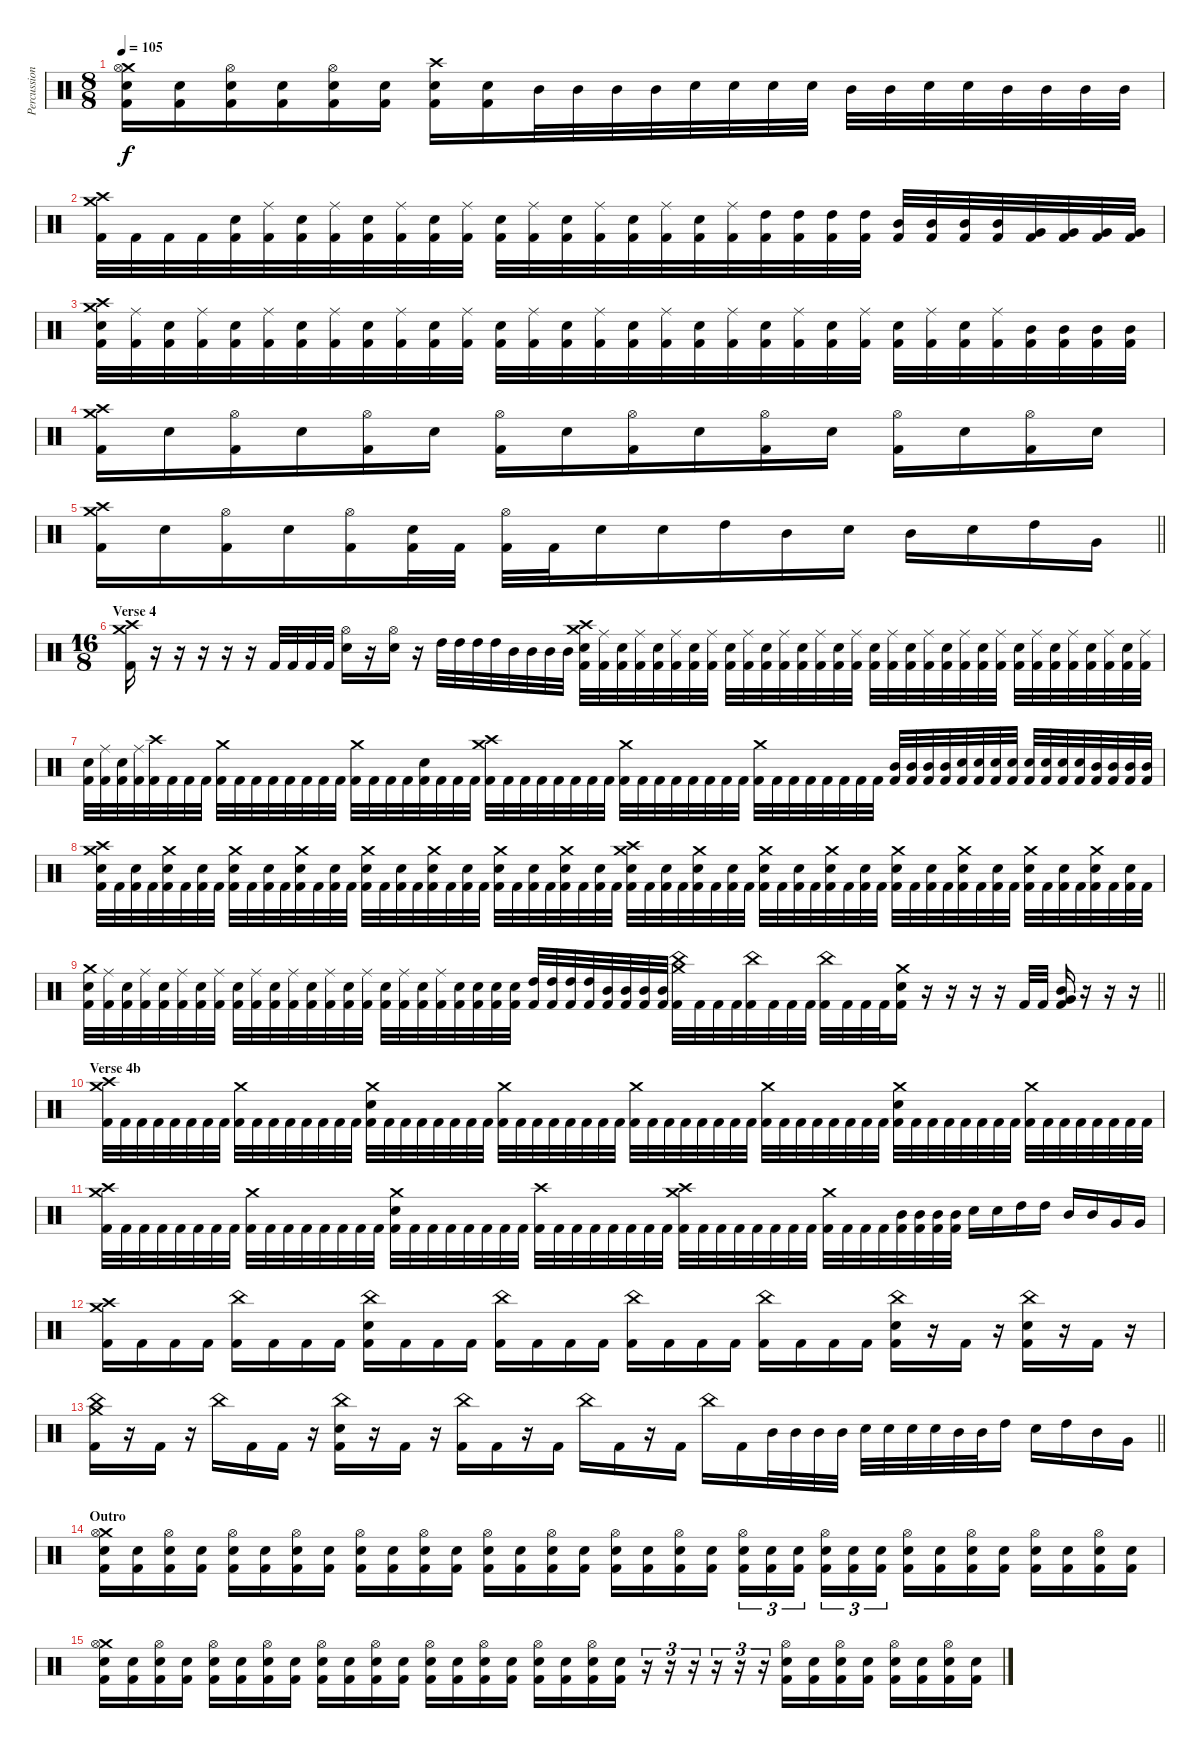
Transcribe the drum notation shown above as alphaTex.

\track ("Percussion" "Percussion") {instrument percussion}
\staff {score}
\articulation defaults
\ts (8 8)
\tempo 105
\clef neutral
\ks c
("Crash medium (hit)" "Hi-Hat (open)" "Snare (hit) 2" "Kick (hit) 2").16{dy f} ("Snare (hit) 2" "Kick (hit) 2").16 ("Hi-Hat (open)" "Snare (hit) 2" "Kick (hit) 2").16 ("Snare (hit) 2" "Kick (hit) 2").16 ("Hi-Hat (open)" "Snare (hit) 2" "Kick (hit) 2").16 ("Snare (hit) 2" "Kick (hit) 2").16 ("Crash high (hit)" "Snare (hit) 2" "Kick (hit) 2").16 ("Snare (hit) 2" "Kick (hit) 2").16 "Mid Tom (hit)".32 "Mid Tom (hit)".32 "Mid Tom (hit)".32 "Mid Tom (hit)".32 "Snare (hit) 2".32 "Snare (hit) 2".32 "Snare (hit) 2".32 "Snare (hit) 2".32 "Mid Tom (hit)".32 "Mid Tom (hit)".32 "Snare (hit) 2".32 "Snare (hit) 2".32 "Mid Tom (hit)".32 "Mid Tom (hit)".32 "Mid Tom (hit)".32 "Mid Tom (hit)".32 |
("Crash medium (hit)" "Crash high (hit)" "Kick (hit) 2").32 "Kick (hit) 2".32 "Kick (hit) 2".32 "Kick (hit) 2".32 ("Snare (hit) 2" "Kick (hit) 2").32 ("Ride (middle)" "Kick (hit) 2").32 ("Snare (hit) 2" "Kick (hit) 2").32 ("Ride (middle)" "Kick (hit) 2").32 ("Snare (hit) 2" "Kick (hit) 2").32 ("Ride (middle)" "Kick (hit) 2").32 ("Snare (hit) 2" "Kick (hit) 2").32 ("Ride (middle)" "Kick (hit) 2").32 ("Snare (hit) 2" "Kick (hit) 2").32 ("Ride (middle)" "Kick (hit) 2").32 ("Snare (hit) 2" "Kick (hit) 2").32 ("Ride (middle)" "Kick (hit) 2").32 ("Snare (hit) 2" "Kick (hit) 2").32 ("Ride (middle)" "Kick (hit) 2").32 ("Snare (hit) 2" "Kick (hit) 2").32 ("Ride (middle)" "Kick (hit) 2").32 ("High Tom (hit)" "Kick (hit) 2").32 ("High Tom (hit)" "Kick (hit) 2").32 ("High Tom (hit)" "Kick (hit) 2").32 ("High Tom (hit)" "Kick (hit) 2").32 ("Mid Tom (hit)" "Kick (hit) 2").32 ("Mid Tom (hit)" "Kick (hit) 2").32 ("Mid Tom (hit)" "Kick (hit) 2").32 ("Mid Tom (hit)" "Kick (hit) 2").32 ("Very Low Tom (hit)" "Kick (hit) 2").32 ("Very Low Tom (hit)" "Kick (hit) 2").32 ("Very Low Tom (hit)" "Kick (hit) 2").32 ("Very Low Tom (hit)" "Kick (hit) 2").32 |
("Crash medium (hit)" "Crash high (hit)" "Snare (hit) 2" "Kick (hit) 2").32 ("Ride (middle)" "Kick (hit) 2").32 ("Snare (hit) 2" "Kick (hit) 2").32 ("Ride (middle)" "Kick (hit) 2").32 ("Snare (hit) 2" "Kick (hit) 2").32 ("Ride (middle)" "Kick (hit) 2").32 ("Snare (hit) 2" "Kick (hit) 2").32 ("Ride (middle)" "Kick (hit) 2").32 ("Snare (hit) 2" "Kick (hit) 2").32 ("Ride (middle)" "Kick (hit) 2").32 ("Snare (hit) 2" "Kick (hit) 2").32 ("Ride (middle)" "Kick (hit) 2").32 ("Snare (hit) 2" "Kick (hit) 2").32 ("Ride (middle)" "Kick (hit) 2").32 ("Snare (hit) 2" "Kick (hit) 2").32 ("Ride (middle)" "Kick (hit) 2").32 ("Snare (hit) 2" "Kick (hit) 2").32 ("Ride (middle)" "Kick (hit) 2").32 ("Snare (hit) 2" "Kick (hit) 2").32 ("Ride (middle)" "Kick (hit) 2").32 ("Snare (hit) 2" "Kick (hit) 2").32 ("Ride (middle)" "Kick (hit) 2").32 ("Snare (hit) 2" "Kick (hit) 2").32 ("Ride (middle)" "Kick (hit) 2").32 ("Snare (hit) 2" "Kick (hit) 2").32 ("Ride (middle)" "Kick (hit) 2").32 ("Snare (hit) 2" "Kick (hit) 2").32 ("Ride (middle)" "Kick (hit) 2").32 ("Mid Tom (hit)" "Kick (hit) 2").32 ("Mid Tom (hit)" "Kick (hit) 2").32 ("Mid Tom (hit)" "Kick (hit) 2").32 ("Mid Tom (hit)" "Kick (hit) 2").32 |
("Crash medium (hit)" "Crash high (hit)" "Kick (hit) 2").16 "Snare (hit) 2".16 ("Hi-Hat (open)" "Kick (hit) 2").16 "Snare (hit) 2".16 ("Hi-Hat (open)" "Kick (hit) 2").16 "Snare (hit) 2".16 ("Hi-Hat (open)" "Kick (hit) 2").16 "Snare (hit) 2".16 ("Hi-Hat (open)" "Kick (hit) 2").16 "Snare (hit) 2".16 ("Hi-Hat (open)" "Kick (hit) 2").16 "Snare (hit) 2".16 ("Hi-Hat (open)" "Kick (hit) 2").16 "Snare (hit) 2".16 ("Hi-Hat (open)" "Kick (hit) 2").16 "Snare (hit) 2".16 |
\barLineRight lightlight
("Crash medium (hit)" "Crash high (hit)" "Kick (hit) 2").16 "Snare (hit) 2".16 ("Hi-Hat (open)" "Kick (hit) 2").16 "Snare (hit) 2".16 ("Hi-Hat (open)" "Kick (hit) 2").16 ("Snare (hit) 2" "Kick (hit) 2").32 "Kick (hit) 2".32 ("Hi-Hat (open)" "Kick (hit) 2").32 "Kick (hit) 2".32 "Snare (hit) 2".16 "Snare (hit) 2".16 "High Tom (hit)".16 "Mid Tom (hit)".16 "Snare (hit) 2".16 "Mid Tom (hit)".16 "Snare (hit) 2".16 "High Tom (hit)".16 "Very Low Tom (hit)".16 |
\ts (16 8)
\section ("" "Verse 4")
("Crash high (hit)" "Crash medium (hit)" "Kick (hit) 2").16 r.16 r.16 r.16 r.16 r.16 "Kick (hit) 2".32 "Kick (hit) 2".32 "Kick (hit) 2".32 "Kick (hit) 2".32 ("Hi-Hat (open)" "Snare (hit) 2").16 r.16 ("Hi-Hat (open)" "Snare (hit) 2").16 r.16 "High Tom (hit)".32 "High Tom (hit)".32 "High Tom (hit)".32 "High Tom (hit)".32 "Mid Tom (hit)".32 "Mid Tom (hit)".32 "Mid Tom (hit)".32 "Mid Tom (hit)".32 ("Crash medium (hit)" "Crash high (hit)" "Snare (hit) 2" "Kick (hit) 2").32 ("Ride (middle)" "Kick (hit) 2").32 ("Snare (hit) 2" "Kick (hit) 2").32 ("Ride (middle)" "Kick (hit) 2").32 ("Snare (hit) 2" "Kick (hit) 2").32 ("Ride (middle)" "Kick (hit) 2").32 ("Snare (hit) 2" "Kick (hit) 2").32 ("Ride (middle)" "Kick (hit) 2").32 ("Snare (hit) 2" "Kick (hit) 2").32 ("Ride (middle)" "Kick (hit) 2").32 ("Snare (hit) 2" "Kick (hit) 2").32 ("Ride (middle)" "Kick (hit) 2").32 ("Snare (hit) 2" "Kick (hit) 2").32 ("Ride (middle)" "Kick (hit) 2").32 ("Snare (hit) 2" "Kick (hit) 2").32 ("Ride (middle)" "Kick (hit) 2").32 ("Snare (hit) 2" "Kick (hit) 2").32 ("Ride (middle)" "Kick (hit) 2").32 ("Snare (hit) 2" "Kick (hit) 2").32 ("Ride (middle)" "Kick (hit) 2").32 ("Snare (hit) 2" "Kick (hit) 2").32 ("Ride (middle)" "Kick (hit) 2").32 ("Snare (hit) 2" "Kick (hit) 2").32 ("Ride (middle)" "Kick (hit) 2").32 ("Snare (hit) 2" "Kick (hit) 2").32 ("Ride (middle)" "Kick (hit) 2").32 ("Snare (hit) 2" "Kick (hit) 2").32 ("Ride (middle)" "Kick (hit) 2").32 ("Snare (hit) 2" "Kick (hit) 2").32 ("Ride (middle)" "Kick (hit) 2").32 ("Snare (hit) 2" "Kick (hit) 2").32 ("Ride (middle)" "Kick (hit) 2").32 |
("Snare (hit) 2" "Kick (hit) 2").32 ("Ride (middle)" "Kick (hit) 2").32 ("Snare (hit) 2" "Kick (hit) 2").32 ("Ride (middle)" "Kick (hit) 2").32 ("Crash high (hit)" "Kick (hit) 2").32 "Kick (hit) 2".32 "Kick (hit) 2".32 "Kick (hit) 2".32 ("Crash medium (hit)" "Kick (hit) 2").32 "Kick (hit) 2".32 "Kick (hit) 2".32 "Kick (hit) 2".32 "Kick (hit) 2".32 "Kick (hit) 2".32 "Kick (hit) 2".32 "Kick (hit) 2".32 ("Crash medium (hit)" "Kick (hit) 2").32 "Kick (hit) 2".32 "Kick (hit) 2".32 "Kick (hit) 2".32 ("Snare (hit) 2" "Kick (hit) 2").32 "Kick (hit) 2".32 "Kick (hit) 2".32 "Kick (hit) 2".32 ("Crash high (hit)" "Crash medium (hit)" "Kick (hit) 2").32 "Kick (hit) 2".32 "Kick (hit) 2".32 "Kick (hit) 2".32 "Kick (hit) 2".32 "Kick (hit) 2".32 "Kick (hit) 2".32 "Kick (hit) 2".32 ("Crash medium (hit)" "Kick (hit) 2").32 "Kick (hit) 2".32 "Kick (hit) 2".32 "Kick (hit) 2".32 "Kick (hit) 2".32 "Kick (hit) 2".32 "Kick (hit) 2".32 "Kick (hit) 2".32 ("Crash medium (hit)" "Kick (hit) 2").32 "Kick (hit) 2".32 "Kick (hit) 2".32 "Kick (hit) 2".32 "Kick (hit) 2".32 "Kick (hit) 2".32 "Kick (hit) 2".32 "Kick (hit) 2".32 ("Mid Tom (hit)" "Kick (hit) 2").32 ("Mid Tom (hit)" "Kick (hit) 2").32 ("Mid Tom (hit)" "Kick (hit) 2").32 ("Mid Tom (hit)" "Kick (hit) 2").32 ("Snare (hit) 2" "Kick (hit) 2").32 ("Snare (hit) 2" "Kick (hit) 2").32 ("Snare (hit) 2" "Kick (hit) 2").32 ("Snare (hit) 2" "Kick (hit) 2").32 ("Snare (hit) 2" "Kick (hit) 2").32 ("Snare (hit) 2" "Kick (hit) 2").32 ("Snare (hit) 2" "Kick (hit) 2").32 ("Snare (hit) 2" "Kick (hit) 2").32 ("Mid Tom (hit)" "Kick (hit) 2").32 ("Mid Tom (hit)" "Kick (hit) 2").32 ("Mid Tom (hit)" "Kick (hit) 2").32 ("Mid Tom (hit)" "Kick (hit) 2").32 |
("Crash medium (hit)" "Crash high (hit)" "Snare (hit) 2" "Kick (hit) 2").32 "Kick (hit) 2".32 ("Snare (hit) 2" "Kick (hit) 2").32 "Kick (hit) 2".32 ("Crash medium (hit)" "Snare (hit) 2" "Kick (hit) 2").32 "Kick (hit) 2".32 ("Snare (hit) 2" "Kick (hit) 2").32 "Kick (hit) 2".32 ("Crash medium (hit)" "Snare (hit) 2" "Kick (hit) 2").32 "Kick (hit) 2".32 ("Snare (hit) 2" "Kick (hit) 2").32 "Kick (hit) 2".32 ("Crash medium (hit)" "Snare (hit) 2" "Kick (hit) 2").32 "Kick (hit) 2".32 ("Snare (hit) 2" "Kick (hit) 2").32 "Kick (hit) 2".32 ("Crash medium (hit)" "Snare (hit) 2" "Kick (hit) 2").32 "Kick (hit) 2".32 ("Snare (hit) 2" "Kick (hit) 2").32 "Kick (hit) 2".32 ("Crash medium (hit)" "Snare (hit) 2" "Kick (hit) 2").32 "Kick (hit) 2".32 ("Snare (hit) 2" "Kick (hit) 2").32 "Kick (hit) 2".32 ("Crash medium (hit)" "Snare (hit) 2" "Kick (hit) 2").32 "Kick (hit) 2".32 ("Snare (hit) 2" "Kick (hit) 2").32 "Kick (hit) 2".32 ("Crash medium (hit)" "Snare (hit) 2" "Kick (hit) 2").32 "Kick (hit) 2".32 ("Snare (hit) 2" "Kick (hit) 2").32 "Kick (hit) 2".32 ("Crash medium (hit)" "Crash high (hit)" "Snare (hit) 2" "Kick (hit) 2").32 "Kick (hit) 2".32 ("Snare (hit) 2" "Kick (hit) 2").32 "Kick (hit) 2".32 ("Crash medium (hit)" "Snare (hit) 2" "Kick (hit) 2").32 "Kick (hit) 2".32 ("Snare (hit) 2" "Kick (hit) 2").32 "Kick (hit) 2".32 ("Crash medium (hit)" "Snare (hit) 2" "Kick (hit) 2").32 "Kick (hit) 2".32 ("Snare (hit) 2" "Kick (hit) 2").32 "Kick (hit) 2".32 ("Crash medium (hit)" "Snare (hit) 2" "Kick (hit) 2").32 "Kick (hit) 2".32 ("Snare (hit) 2" "Kick (hit) 2").32 "Kick (hit) 2".32 ("Crash medium (hit)" "Snare (hit) 2" "Kick (hit) 2").32 "Kick (hit) 2".32 ("Snare (hit) 2" "Kick (hit) 2").32 "Kick (hit) 2".32 ("Crash medium (hit)" "Snare (hit) 2" "Kick (hit) 2").32 "Kick (hit) 2".32 ("Snare (hit) 2" "Kick (hit) 2").32 "Kick (hit) 2".32 ("Crash medium (hit)" "Snare (hit) 2" "Kick (hit) 2").32 "Kick (hit) 2".32 ("Snare (hit) 2" "Kick (hit) 2").32 "Kick (hit) 2".32 ("Crash medium (hit)" "Snare (hit) 2" "Kick (hit) 2").32 "Kick (hit) 2".32 ("Snare (hit) 2" "Kick (hit) 2").32 "Kick (hit) 2".32 |
\barLineRight lightlight
("Crash medium (hit)" "Snare (hit) 2" "Kick (hit) 2").32 ("Ride (middle)" "Kick (hit) 2").32 ("Snare (hit) 2" "Kick (hit) 2").32 ("Ride (middle)" "Kick (hit) 2").32 ("Snare (hit) 2" "Kick (hit) 2").32 ("Ride (middle)" "Kick (hit) 2").32 ("Snare (hit) 2" "Kick (hit) 2").32 ("Ride (middle)" "Kick (hit) 2").32 ("Snare (hit) 2" "Kick (hit) 2").32 ("Ride (middle)" "Kick (hit) 2").32 ("Snare (hit) 2" "Kick (hit) 2").32 ("Ride (middle)" "Kick (hit) 2").32 ("Snare (hit) 2" "Kick (hit) 2").32 ("Ride (middle)" "Kick (hit) 2").32 ("Snare (hit) 2" "Kick (hit) 2").32 ("Ride (middle)" "Kick (hit) 2").32 ("Snare (hit) 2" "Kick (hit) 2").32 ("Ride (middle)" "Kick (hit) 2").32 ("Snare (hit) 2" "Kick (hit) 2").32 ("Ride (middle)" "Kick (hit) 2").32 ("Snare (hit) 2" "Kick (hit) 2").32 ("Snare (hit) 2" "Kick (hit) 2").32 ("Snare (hit) 2" "Kick (hit) 2").32 ("Snare (hit) 2" "Kick (hit) 2").32 ("High Tom (hit)" "Kick (hit) 2").32 ("High Tom (hit)" "Kick (hit) 2").32 ("High Tom (hit)" "Kick (hit) 2").32 ("High Tom (hit)" "Kick (hit) 2").32 ("Mid Tom (hit)" "Kick (hit) 2").32 ("Mid Tom (hit)" "Kick (hit) 2").32 ("Mid Tom (hit)" "Kick (hit) 2").32 ("Mid Tom (hit)" "Kick (hit) 2").32 ("Crash medium (hit)" "China (hit)" "Kick (hit) 2").32 "Kick (hit) 2".32 "Kick (hit) 2".32 "Kick (hit) 2".32 ("China (hit)" "Kick (hit) 2").32 "Kick (hit) 2".32 "Kick (hit) 2".32 "Kick (hit) 2".32 ("China (hit)" "Kick (hit) 2").32 "Kick (hit) 2".32 "Kick (hit) 2".32 "Kick (hit) 2".32 ("Crash medium (hit)" "Snare (hit) 2" "Kick (hit) 2").16 r.16 r.16 r.16 r.16 "Kick (hit) 2".32 "Kick (hit) 2".32 ("Mid Tom (hit)" "Very Low Tom (hit)" "Kick (hit) 2").16 r.16 r.16 r.16 |
\section ("" "Verse 4b")
("Crash medium (hit)" "Crash high (hit)" "Kick (hit) 2").32 "Kick (hit) 2".32 "Kick (hit) 2".32 "Kick (hit) 2".32 "Kick (hit) 2".32 "Kick (hit) 2".32 "Kick (hit) 2".32 "Kick (hit) 2".32 ("Crash medium (hit)" "Kick (hit) 2").32 "Kick (hit) 2".32 "Kick (hit) 2".32 "Kick (hit) 2".32 "Kick (hit) 2".32 "Kick (hit) 2".32 "Kick (hit) 2".32 "Kick (hit) 2".32 ("Crash medium (hit)" "Snare (hit) 2" "Kick (hit) 2").32 "Kick (hit) 2".32 "Kick (hit) 2".32 "Kick (hit) 2".32 "Kick (hit) 2".32 "Kick (hit) 2".32 "Kick (hit) 2".32 "Kick (hit) 2".32 ("Crash medium (hit)" "Kick (hit) 2").32 "Kick (hit) 2".32 "Kick (hit) 2".32 "Kick (hit) 2".32 "Kick (hit) 2".32 "Kick (hit) 2".32 "Kick (hit) 2".32 "Kick (hit) 2".32 ("Crash medium (hit)" "Kick (hit) 2").32 "Kick (hit) 2".32 "Kick (hit) 2".32 "Kick (hit) 2".32 "Kick (hit) 2".32 "Kick (hit) 2".32 "Kick (hit) 2".32 "Kick (hit) 2".32 ("Crash medium (hit)" "Kick (hit) 2").32 "Kick (hit) 2".32 "Kick (hit) 2".32 "Kick (hit) 2".32 "Kick (hit) 2".32 "Kick (hit) 2".32 "Kick (hit) 2".32 "Kick (hit) 2".32 ("Crash medium (hit)" "Snare (hit) 2" "Kick (hit) 2").32 "Kick (hit) 2".32 "Kick (hit) 2".32 "Kick (hit) 2".32 "Kick (hit) 2".32 "Kick (hit) 2".32 "Kick (hit) 2".32 "Kick (hit) 2".32 ("Crash medium (hit)" "Kick (hit) 2").32 "Kick (hit) 2".32 "Kick (hit) 2".32 "Kick (hit) 2".32 "Kick (hit) 2".32 "Kick (hit) 2".32 "Kick (hit) 2".32 "Kick (hit) 2".32 |
("Crash medium (hit)" "Crash high (hit)" "Kick (hit) 2").32 "Kick (hit) 2".32 "Kick (hit) 2".32 "Kick (hit) 2".32 "Kick (hit) 2".32 "Kick (hit) 2".32 "Kick (hit) 2".32 "Kick (hit) 2".32 ("Crash medium (hit)" "Kick (hit) 2").32 "Kick (hit) 2".32 "Kick (hit) 2".32 "Kick (hit) 2".32 "Kick (hit) 2".32 "Kick (hit) 2".32 "Kick (hit) 2".32 "Kick (hit) 2".32 ("Crash medium (hit)" "Snare (hit) 2" "Kick (hit) 2").32 "Kick (hit) 2".32 "Kick (hit) 2".32 "Kick (hit) 2".32 "Kick (hit) 2".32 "Kick (hit) 2".32 "Kick (hit) 2".32 "Kick (hit) 2".32 ("Crash high (hit)" "Kick (hit) 2").32 "Kick (hit) 2".32 "Kick (hit) 2".32 "Kick (hit) 2".32 "Kick (hit) 2".32 "Kick (hit) 2".32 "Kick (hit) 2".32 "Kick (hit) 2".32 ("Crash high (hit)" "Crash medium (hit)" "Kick (hit) 2").32 "Kick (hit) 2".32 "Kick (hit) 2".32 "Kick (hit) 2".32 "Kick (hit) 2".32 "Kick (hit) 2".32 "Kick (hit) 2".32 "Kick (hit) 2".32 ("Crash medium (hit)" "Kick (hit) 2").32 "Kick (hit) 2".32 "Kick (hit) 2".32 "Kick (hit) 2".32 ("Mid Tom (hit)" "Kick (hit) 2").32 ("Mid Tom (hit)" "Kick (hit) 2").32 ("Mid Tom (hit)" "Kick (hit) 2").32 ("Mid Tom (hit)" "Kick (hit) 2").32 "Snare (hit) 2".16 "Snare (hit) 2".16 "High Tom (hit)".16 "High Tom (hit)".16 "Mid Tom (hit)".16 "Mid Tom (hit)".16 "Very Low Tom (hit)".16 "Very Low Tom (hit)".16 |
("Crash medium (hit)" "Crash high (hit)" "Kick (hit) 2").16 "Kick (hit) 2".16 "Kick (hit) 2".16 "Kick (hit) 2".16 ("China (hit)" "Kick (hit) 2").16 "Kick (hit) 2".16 "Kick (hit) 2".16 "Kick (hit) 2".16 ("China (hit)" "Snare (hit) 2" "Kick (hit) 2").16 "Kick (hit) 2".16 "Kick (hit) 2".16 "Kick (hit) 2".16 ("China (hit)" "Kick (hit) 2").16 "Kick (hit) 2".16 "Kick (hit) 2".16 "Kick (hit) 2".16 ("China (hit)" "Kick (hit) 2").16 "Kick (hit) 2".16 "Kick (hit) 2".16 "Kick (hit) 2".16 ("China (hit)" "Kick (hit) 2").16 "Kick (hit) 2".16 "Kick (hit) 2".16 "Kick (hit) 2".16 ("China (hit)" "Snare (hit) 2" "Kick (hit) 2").16 r.16 "Kick (hit) 2".16 r.16 ("China (hit)" "Snare (hit) 2" "Kick (hit) 2").16 r.16 "Kick (hit) 2".16 r.16 |
\barLineRight lightlight
("Crash medium (hit)" "China (hit)" "Kick (hit) 2").16 r.16 "Kick (hit) 2".16 r.16 "China (hit)".16 "Kick (hit) 2".16 "Kick (hit) 2".16 r.16 ("China (hit)" "Snare (hit) 2" "Kick (hit) 2").16 r.16 "Kick (hit) 2".16 r.16 ("China (hit)" "Kick (hit) 2").16 "Kick (hit) 2".16 r.16 "Kick (hit) 2".16 "China (hit)".16 "Kick (hit) 2".16 r.16 "Kick (hit) 2".16 "China (hit)".16 "Kick (hit) 2".16 "Mid Tom (hit)".32 "Mid Tom (hit)".32 "Mid Tom (hit)".32 "Mid Tom (hit)".32 "Snare (hit) 2".32 "Snare (hit) 2".32 "Snare (hit) 2".32 "Snare (hit) 2".32 "Mid Tom (hit)".32 "Mid Tom (hit)".32 "High Tom (hit)".16 "Snare (hit) 2".16 "High Tom (hit)".16 "Mid Tom (hit)".16 "Very Low Tom (hit)".16 |
\section ("" "Outro")
("Crash medium (hit)" "Hi-Hat (open)" "Snare (hit) 2" "Kick (hit) 2").16 ("Snare (hit) 2" "Kick (hit) 2").16 ("Hi-Hat (open)" "Snare (hit) 2" "Kick (hit) 2").16 ("Snare (hit) 2" "Kick (hit) 2").16 ("Hi-Hat (open)" "Snare (hit) 2" "Kick (hit) 2").16 ("Snare (hit) 2" "Kick (hit) 2").16 ("Hi-Hat (open)" "Snare (hit) 2" "Kick (hit) 2").16 ("Snare (hit) 2" "Kick (hit) 2").16 ("Hi-Hat (open)" "Snare (hit) 2" "Kick (hit) 2").16 ("Snare (hit) 2" "Kick (hit) 2").16 ("Hi-Hat (open)" "Snare (hit) 2" "Kick (hit) 2").16 ("Snare (hit) 2" "Kick (hit) 2").16 ("Hi-Hat (open)" "Snare (hit) 2" "Kick (hit) 2").16 ("Snare (hit) 2" "Kick (hit) 2").16 ("Hi-Hat (open)" "Snare (hit) 2" "Kick (hit) 2").16 ("Snare (hit) 2" "Kick (hit) 2").16 ("Hi-Hat (open)" "Snare (hit) 2" "Kick (hit) 2").16 ("Snare (hit) 2" "Kick (hit) 2").16 ("Hi-Hat (open)" "Snare (hit) 2" "Kick (hit) 2").16 ("Snare (hit) 2" "Kick (hit) 2").16 ("Hi-Hat (open)" "Snare (hit) 2" "Kick (hit) 2").16{tu (3 2)} ("Snare (hit) 2" "Kick (hit) 2").16{tu (3 2)} ("Snare (hit) 2" "Kick (hit) 2").16{tu (3 2)} ("Hi-Hat (open)" "Snare (hit) 2" "Kick (hit) 2").16{tu (3 2)} ("Snare (hit) 2" "Kick (hit) 2").16{tu (3 2)} ("Snare (hit) 2" "Kick (hit) 2").16{tu (3 2)} ("Hi-Hat (open)" "Snare (hit) 2" "Kick (hit) 2").16 ("Snare (hit) 2" "Kick (hit) 2").16 ("Hi-Hat (open)" "Snare (hit) 2" "Kick (hit) 2").16 ("Snare (hit) 2" "Kick (hit) 2").16 ("Hi-Hat (open)" "Snare (hit) 2" "Kick (hit) 2").16 ("Snare (hit) 2" "Kick (hit) 2").16 ("Hi-Hat (open)" "Snare (hit) 2" "Kick (hit) 2").16 ("Snare (hit) 2" "Kick (hit) 2").16 |
("Crash medium (hit)" "Hi-Hat (open)" "Snare (hit) 2" "Kick (hit) 2").16 ("Snare (hit) 2" "Kick (hit) 2").16 ("Hi-Hat (open)" "Snare (hit) 2" "Kick (hit) 2").16 ("Snare (hit) 2" "Kick (hit) 2").16 ("Hi-Hat (open)" "Snare (hit) 2" "Kick (hit) 2").16 ("Snare (hit) 2" "Kick (hit) 2").16 ("Hi-Hat (open)" "Snare (hit) 2" "Kick (hit) 2").16 ("Snare (hit) 2" "Kick (hit) 2").16 ("Hi-Hat (open)" "Snare (hit) 2" "Kick (hit) 2").16 ("Snare (hit) 2" "Kick (hit) 2").16 ("Hi-Hat (open)" "Snare (hit) 2" "Kick (hit) 2").16 ("Snare (hit) 2" "Kick (hit) 2").16 ("Hi-Hat (open)" "Snare (hit) 2" "Kick (hit) 2").16 ("Snare (hit) 2" "Kick (hit) 2").16 ("Hi-Hat (open)" "Snare (hit) 2" "Kick (hit) 2").16 ("Snare (hit) 2" "Kick (hit) 2").16 ("Hi-Hat (open)" "Snare (hit) 2" "Kick (hit) 2").16 ("Snare (hit) 2" "Kick (hit) 2").16 ("Hi-Hat (open)" "Snare (hit) 2" "Kick (hit) 2").16 ("Snare (hit) 2" "Kick (hit) 2").16 r.16{tu (3 2)} r.16{tu (3 2)} r.16{tu (3 2)} r.16{tu (3 2)} r.16{tu (3 2)} r.16{tu (3 2)} ("Hi-Hat (open)" "Snare (hit) 2" "Kick (hit) 2").16 ("Snare (hit) 2" "Kick (hit) 2").16 ("Hi-Hat (open)" "Snare (hit) 2" "Kick (hit) 2").16 ("Snare (hit) 2" "Kick (hit) 2").16 ("Hi-Hat (open)" "Snare (hit) 2" "Kick (hit) 2").16 ("Snare (hit) 2" "Kick (hit) 2").16 ("Hi-Hat (open)" "Snare (hit) 2" "Kick (hit) 2").16 ("Snare (hit) 2" "Kick (hit) 2").16
